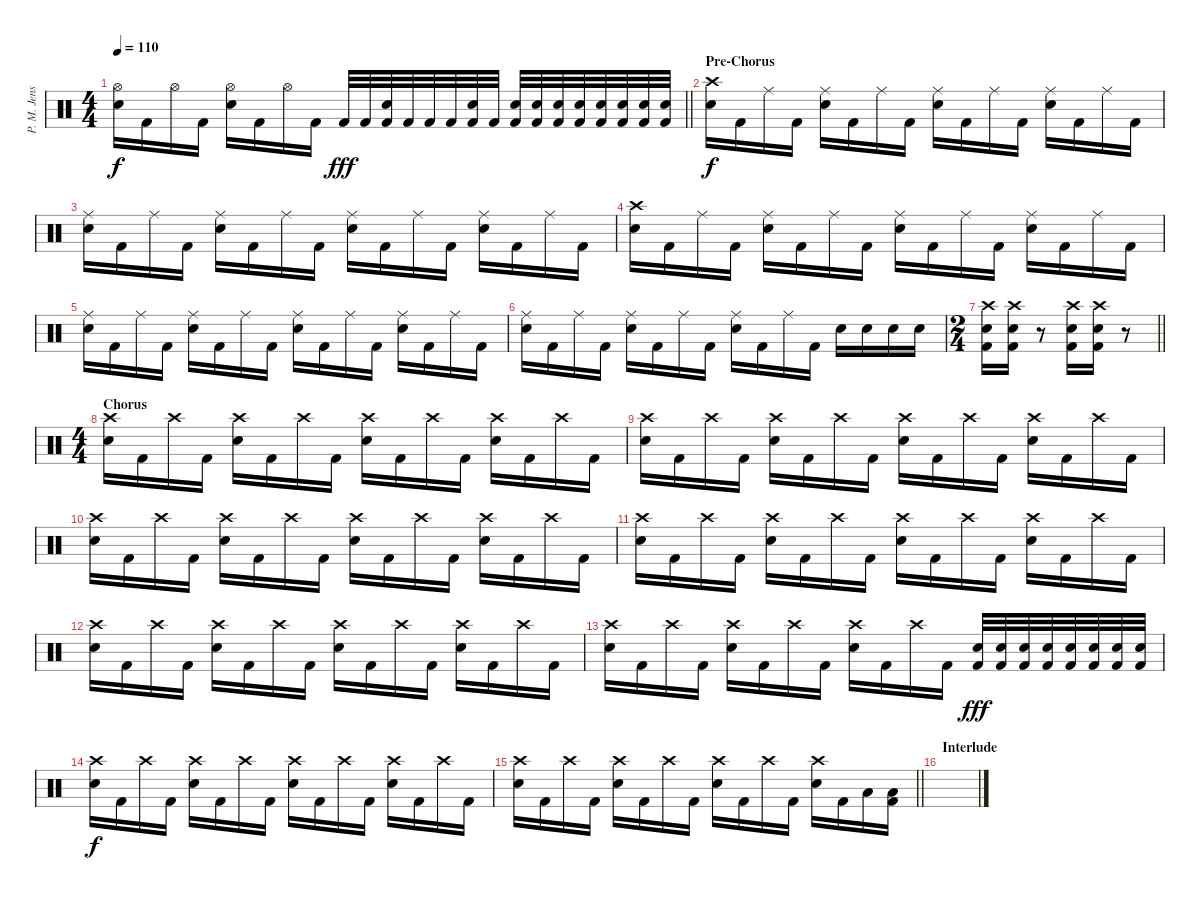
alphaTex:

\track ("P. M. Jensen" "P. M. Jens") {instrument percussion}
\staff {score}
\articulation defaults
\ts (4 4)
\tempo 110
\clef neutral
\barLineRight lightlight
\ks c
("Hi-Hat (open)" "Electric Snare (hit)").16{dy f} "Kick (hit) 2".16 "Hi-Hat (open)".16 "Kick (hit) 2".16 ("Hi-Hat (open)" "Electric Snare (hit)").16 "Kick (hit) 2".16 "Hi-Hat (open)".16 "Kick (hit) 2".16 "Kick (hit) 2".32{dy fff} "Kick (hit) 2".32 ("Electric Snare (hit)" "Kick (hit) 2").32 "Kick (hit) 2".32 "Kick (hit) 2".32 "Kick (hit) 2".32 ("Electric Snare (hit)" "Kick (hit) 2").32 "Kick (hit) 2".32 ("Electric Snare (hit)" "Kick (hit) 2").32 ("Electric Snare (hit)" "Kick (hit) 2").32 ("Electric Snare (hit)" "Kick (hit) 2").32 ("Electric Snare (hit)" "Kick (hit) 2").32 ("Electric Snare (hit)" "Kick (hit) 2").32 ("Electric Snare (hit)" "Kick (hit) 2").32 ("Electric Snare (hit)" "Kick (hit) 2").32 ("Electric Snare (hit)" "Kick (hit) 2").32 |
\section ("" "Pre-Chorus")
("Crash high (hit)" "Electric Snare (hit)").16{dy f} "Kick (hit) 2".16 "Ride (middle)".16 "Kick (hit) 2".16 ("Ride (middle)" "Electric Snare (hit)").16 "Kick (hit) 2".16 "Ride (middle)".16 "Kick (hit) 2".16 ("Ride (middle)" "Electric Snare (hit)").16 "Kick (hit) 2".16 "Ride (middle)".16 "Kick (hit) 2".16 ("Ride (middle)" "Electric Snare (hit)").16 "Kick (hit) 2".16 "Ride (middle)".16 "Kick (hit) 2".16 |
("Ride (middle)" "Electric Snare (hit)").16 "Kick (hit) 2".16 "Ride (middle)".16 "Kick (hit) 2".16 ("Ride (middle)" "Electric Snare (hit)").16 "Kick (hit) 2".16 "Ride (middle)".16 "Kick (hit) 2".16 ("Ride (middle)" "Electric Snare (hit)").16 "Kick (hit) 2".16 "Ride (middle)".16 "Kick (hit) 2".16 ("Ride (middle)" "Electric Snare (hit)").16 "Kick (hit) 2".16 "Ride (middle)".16 "Kick (hit) 2".16 |
("Crash high (hit)" "Electric Snare (hit)").16 "Kick (hit) 2".16 "Ride (middle)".16 "Kick (hit) 2".16 ("Ride (middle)" "Electric Snare (hit)").16 "Kick (hit) 2".16 "Ride (middle)".16 "Kick (hit) 2".16 ("Ride (middle)" "Electric Snare (hit)").16 "Kick (hit) 2".16 "Ride (middle)".16 "Kick (hit) 2".16 ("Ride (middle)" "Electric Snare (hit)").16 "Kick (hit) 2".16 "Ride (middle)".16 "Kick (hit) 2".16 |
("Ride (middle)" "Electric Snare (hit)").16 "Kick (hit) 2".16 "Ride (middle)".16 "Kick (hit) 2".16 ("Ride (middle)" "Electric Snare (hit)").16 "Kick (hit) 2".16 "Ride (middle)".16 "Kick (hit) 2".16 ("Ride (middle)" "Electric Snare (hit)").16 "Kick (hit) 2".16 "Ride (middle)".16 "Kick (hit) 2".16 ("Ride (middle)" "Electric Snare (hit)").16 "Kick (hit) 2".16 "Ride (middle)".16 "Kick (hit) 2".16 |
("Ride (middle)" "Electric Snare (hit)").16 "Kick (hit) 2".16 "Ride (middle)".16 "Kick (hit) 2".16 ("Ride (middle)" "Electric Snare (hit)").16 "Kick (hit) 2".16 "Ride (middle)".16 "Kick (hit) 2".16 ("Ride (middle)" "Electric Snare (hit)").16 "Kick (hit) 2".16 "Ride (middle)".16 "Kick (hit) 2".16 "Electric Snare (hit)".16 "Electric Snare (hit)".16 "Electric Snare (hit)".16 "Electric Snare (hit)".16 |
\ts (2 4)
\barLineRight lightlight
("Crash high (hit)" "Electric Snare (hit)" "Kick (hit) 2").16 ("Crash high (hit)" "Electric Snare (hit)" "Kick (hit) 2").16 r.8 ("Crash high (hit)" "Electric Snare (hit)" "Kick (hit) 2").16 ("Crash high (hit)" "Electric Snare (hit)" "Kick (hit) 2").16 r.8 |
\ts (4 4)
\section ("" "Chorus")
("Crash high (hit)" "Electric Snare (hit)").16 "Kick (hit) 2".16 "Crash high (hit)".16 "Kick (hit) 2".16 ("Crash high (hit)" "Electric Snare (hit)").16 "Kick (hit) 2".16 "Crash high (hit)".16 "Kick (hit) 2".16 ("Crash high (hit)" "Electric Snare (hit)").16 "Kick (hit) 2".16 "Crash high (hit)".16 "Kick (hit) 2".16 ("Crash high (hit)" "Electric Snare (hit)").16 "Kick (hit) 2".16 "Crash high (hit)".16 "Kick (hit) 2".16 |
("Crash high (hit)" "Electric Snare (hit)").16 "Kick (hit) 2".16 "Crash high (hit)".16 "Kick (hit) 2".16 ("Crash high (hit)" "Electric Snare (hit)").16 "Kick (hit) 2".16 "Crash high (hit)".16 "Kick (hit) 2".16 ("Crash high (hit)" "Electric Snare (hit)").16 "Kick (hit) 2".16 "Crash high (hit)".16 "Kick (hit) 2".16 ("Crash high (hit)" "Electric Snare (hit)").16 "Kick (hit) 2".16 "Crash high (hit)".16 "Kick (hit) 2".16 |
("Crash high (hit)" "Electric Snare (hit)").16 "Kick (hit) 2".16 "Crash high (hit)".16 "Kick (hit) 2".16 ("Crash high (hit)" "Electric Snare (hit)").16 "Kick (hit) 2".16 "Crash high (hit)".16 "Kick (hit) 2".16 ("Crash high (hit)" "Electric Snare (hit)").16 "Kick (hit) 2".16 "Crash high (hit)".16 "Kick (hit) 2".16 ("Crash high (hit)" "Electric Snare (hit)").16 "Kick (hit) 2".16 "Crash high (hit)".16 "Kick (hit) 2".16 |
("Crash high (hit)" "Electric Snare (hit)").16 "Kick (hit) 2".16 "Crash high (hit)".16 "Kick (hit) 2".16 ("Crash high (hit)" "Electric Snare (hit)").16 "Kick (hit) 2".16 "Crash high (hit)".16 "Kick (hit) 2".16 ("Crash high (hit)" "Electric Snare (hit)").16 "Kick (hit) 2".16 "Crash high (hit)".16 "Kick (hit) 2".16 ("Crash high (hit)" "Electric Snare (hit)").16 "Kick (hit) 2".16 "Crash high (hit)".16 "Kick (hit) 2".16 |
("Crash high (hit)" "Electric Snare (hit)").16 "Kick (hit) 2".16 "Crash high (hit)".16 "Kick (hit) 2".16 ("Crash high (hit)" "Electric Snare (hit)").16 "Kick (hit) 2".16 "Crash high (hit)".16 "Kick (hit) 2".16 ("Crash high (hit)" "Electric Snare (hit)").16 "Kick (hit) 2".16 "Crash high (hit)".16 "Kick (hit) 2".16 ("Crash high (hit)" "Electric Snare (hit)").16 "Kick (hit) 2".16 "Crash high (hit)".16 "Kick (hit) 2".16 |
("Crash high (hit)" "Electric Snare (hit)").16 "Kick (hit) 2".16 "Crash high (hit)".16 "Kick (hit) 2".16 ("Crash high (hit)" "Electric Snare (hit)").16 "Kick (hit) 2".16 "Crash high (hit)".16 "Kick (hit) 2".16 ("Crash high (hit)" "Electric Snare (hit)").16 "Kick (hit) 2".16 "Crash high (hit)".16 "Kick (hit) 2".16 ("Electric Snare (hit)" "Kick (hit) 2").32{dy fff} ("Electric Snare (hit)" "Kick (hit) 2").32 ("Electric Snare (hit)" "Kick (hit) 2").32 ("Electric Snare (hit)" "Kick (hit) 2").32 ("Electric Snare (hit)" "Kick (hit) 2").32 ("Electric Snare (hit)" "Kick (hit) 2").32 ("Electric Snare (hit)" "Kick (hit) 2").32 ("Electric Snare (hit)" "Kick (hit) 2").32 |
("Crash high (hit)" "Electric Snare (hit)").16{dy f} "Kick (hit) 2".16 "Crash high (hit)".16 "Kick (hit) 2".16 ("Crash high (hit)" "Electric Snare (hit)").16 "Kick (hit) 2".16 "Crash high (hit)".16 "Kick (hit) 2".16 ("Crash high (hit)" "Electric Snare (hit)").16 "Kick (hit) 2".16 "Crash high (hit)".16 "Kick (hit) 2".16 ("Crash high (hit)" "Electric Snare (hit)").16 "Kick (hit) 2".16 "Crash high (hit)".16 "Kick (hit) 2".16 |
\barLineRight lightlight
("Crash high (hit)" "Electric Snare (hit)").16 "Kick (hit) 2".16 "Crash high (hit)".16 "Kick (hit) 2".16 ("Crash high (hit)" "Electric Snare (hit)").16 "Kick (hit) 2".16 "Crash high (hit)".16 "Kick (hit) 2".16 ("Crash high (hit)" "Electric Snare (hit)").16 "Kick (hit) 2".16 "Crash high (hit)".16 "Kick (hit) 2".16 ("Crash high (hit)" "Electric Snare (hit)").16 "Kick (hit) 2".16 "Low Tom (hit)".16 ("Low Tom (hit)" "Kick (hit) 2").16 |
\section ("" "Interlude")
